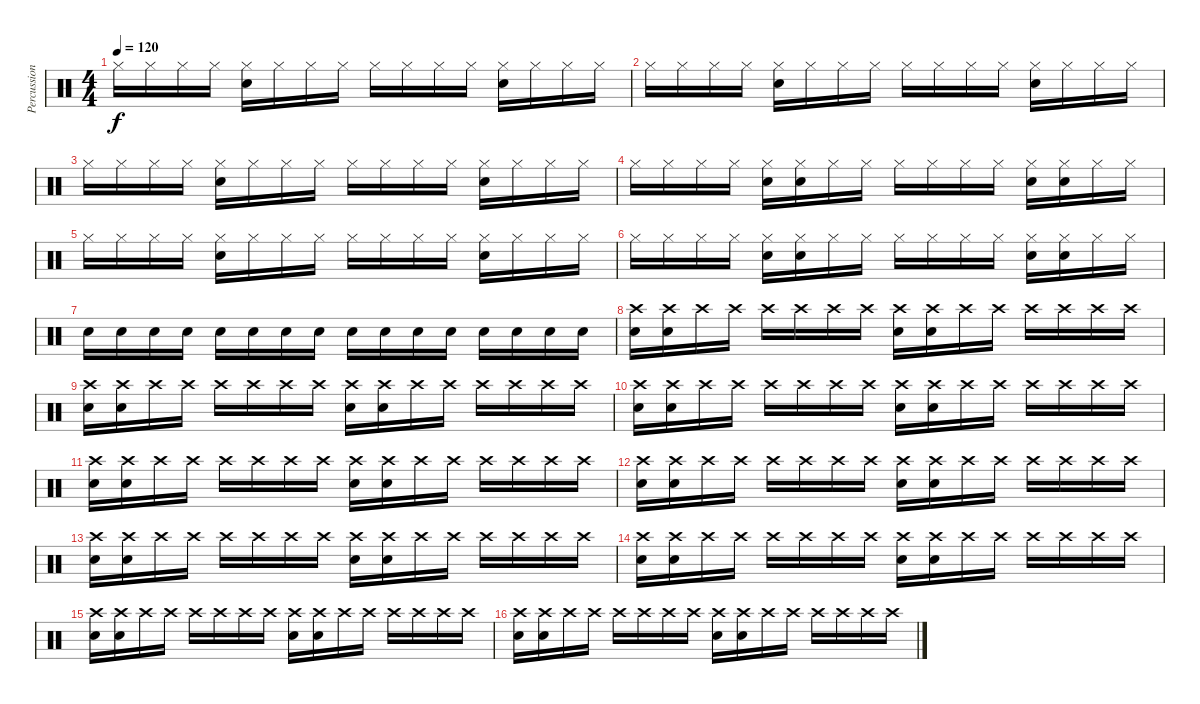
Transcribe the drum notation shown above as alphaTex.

\track ("Percussion" "Percussion") {instrument percussion}
\staff {score}
\articulation defaults
\ts (4 4)
\tempo 120
\clef neutral
\ks c "Hi-Hat (closed)".16{dy f} "Hi-Hat (closed)".16 "Hi-Hat (closed)".16 "Hi-Hat (closed)".16
("Hi-Hat (closed)" "Electric Snare (hit)").16 "Hi-Hat (closed)".16 "Hi-Hat (closed)".16 "Hi-Hat (closed)".16 "Hi-Hat (closed)".16 "Hi-Hat (closed)".16 "Hi-Hat (closed)".16 "Hi-Hat (closed)".16 ("Hi-Hat (closed)" "Electric Snare (hit)").16 "Hi-Hat (closed)".16 "Hi-Hat (closed)".16 "Hi-Hat (closed)".16 |
"Hi-Hat (closed)".16 "Hi-Hat (closed)".16 "Hi-Hat (closed)".16 "Hi-Hat (closed)".16 ("Hi-Hat (closed)" "Electric Snare (hit)").16 "Hi-Hat (closed)".16 "Hi-Hat (closed)".16 "Hi-Hat (closed)".16 "Hi-Hat (closed)".16 "Hi-Hat (closed)".16 "Hi-Hat (closed)".16 "Hi-Hat (closed)".16 ("Hi-Hat (closed)" "Electric Snare (hit)").16 "Hi-Hat (closed)".16 "Hi-Hat (closed)".16 "Hi-Hat (closed)".16 |
"Hi-Hat (closed)".16 "Hi-Hat (closed)".16 "Hi-Hat (closed)".16 "Hi-Hat (closed)".16 ("Hi-Hat (closed)" "Electric Snare (hit)").16 "Hi-Hat (closed)".16 "Hi-Hat (closed)".16 "Hi-Hat (closed)".16 "Hi-Hat (closed)".16 "Hi-Hat (closed)".16 "Hi-Hat (closed)".16 "Hi-Hat (closed)".16 ("Hi-Hat (closed)" "Electric Snare (hit)").16 "Hi-Hat (closed)".16 "Hi-Hat (closed)".16 "Hi-Hat (closed)".16 |
"Hi-Hat (closed)".16 "Hi-Hat (closed)".16 "Hi-Hat (closed)".16 "Hi-Hat (closed)".16 ("Hi-Hat (closed)" "Electric Snare (hit)").16 ("Hi-Hat (closed)" "Electric Snare (hit)").16 "Hi-Hat (closed)".16 "Hi-Hat (closed)".16 "Hi-Hat (closed)".16 "Hi-Hat (closed)".16 "Hi-Hat (closed)".16 "Hi-Hat (closed)".16 ("Hi-Hat (closed)" "Electric Snare (hit)").16 ("Hi-Hat (closed)" "Electric Snare (hit)").16 "Hi-Hat (closed)".16 "Hi-Hat (closed)".16 |
"Hi-Hat (closed)".16 "Hi-Hat (closed)".16 "Hi-Hat (closed)".16 "Hi-Hat (closed)".16 ("Hi-Hat (closed)" "Electric Snare (hit)").16 "Hi-Hat (closed)".16 "Hi-Hat (closed)".16 "Hi-Hat (closed)".16 "Hi-Hat (closed)".16 "Hi-Hat (closed)".16 "Hi-Hat (closed)".16 "Hi-Hat (closed)".16 ("Hi-Hat (closed)" "Electric Snare (hit)").16 "Hi-Hat (closed)".16 "Hi-Hat (closed)".16 "Hi-Hat (closed)".16 |
"Hi-Hat (closed)".16 "Hi-Hat (closed)".16 "Hi-Hat (closed)".16 "Hi-Hat (closed)".16 ("Hi-Hat (closed)" "Electric Snare (hit)").16 ("Hi-Hat (closed)" "Electric Snare (hit)").16 "Hi-Hat (closed)".16 "Hi-Hat (closed)".16 "Hi-Hat (closed)".16 "Hi-Hat (closed)".16 "Hi-Hat (closed)".16 "Hi-Hat (closed)".16 ("Hi-Hat (closed)" "Electric Snare (hit)").16 ("Hi-Hat (closed)" "Electric Snare (hit)").16 "Hi-Hat (closed)".16 "Hi-Hat (closed)".16 |
"Electric Snare (hit)".16 "Electric Snare (hit)".16 "Electric Snare (hit)".16 "Electric Snare (hit)".16 "Electric Snare (hit)".16 "Electric Snare (hit)".16 "Electric Snare (hit)".16 "Electric Snare (hit)".16 "Electric Snare (hit)".16 "Electric Snare (hit)".16 "Electric Snare (hit)".16 "Electric Snare (hit)".16 "Electric Snare (hit)".16 "Electric Snare (hit)".16 "Electric Snare (hit)".16 "Electric Snare (hit)".16 |
("Crash high (hit)" "Electric Snare (hit)").16 ("Crash high (hit)" "Electric Snare (hit)").16 "Crash high (hit)".16 "Crash high (hit)".16 "Crash high (hit)".16 "Crash high (hit)".16 "Crash high (hit)".16 "Crash high (hit)".16 ("Crash high (hit)" "Electric Snare (hit)").16 ("Crash high (hit)" "Electric Snare (hit)").16 "Crash high (hit)".16 "Crash high (hit)".16 "Crash high (hit)".16 "Crash high (hit)".16 "Crash high (hit)".16 "Crash high (hit)".16 |
("Crash high (hit)" "Electric Snare (hit)").16 ("Crash high (hit)" "Electric Snare (hit)").16 "Crash high (hit)".16 "Crash high (hit)".16 "Crash high (hit)".16 "Crash high (hit)".16 "Crash high (hit)".16 "Crash high (hit)".16 ("Crash high (hit)" "Electric Snare (hit)").16 ("Crash high (hit)" "Electric Snare (hit)").16 "Crash high (hit)".16 "Crash high (hit)".16 "Crash high (hit)".16 "Crash high (hit)".16 "Crash high (hit)".16 "Crash high (hit)".16 |
("Crash high (hit)" "Electric Snare (hit)").16 ("Crash high (hit)" "Electric Snare (hit)").16 "Crash high (hit)".16 "Crash high (hit)".16 "Crash high (hit)".16 "Crash high (hit)".16 "Crash high (hit)".16 "Crash high (hit)".16 ("Crash high (hit)" "Electric Snare (hit)").16 ("Crash high (hit)" "Electric Snare (hit)").16 "Crash high (hit)".16 "Crash high (hit)".16 "Crash high (hit)".16 "Crash high (hit)".16 "Crash high (hit)".16 "Crash high (hit)".16 |
("Crash high (hit)" "Electric Snare (hit)").16 ("Crash high (hit)" "Electric Snare (hit)").16 "Crash high (hit)".16 "Crash high (hit)".16 "Crash high (hit)".16 "Crash high (hit)".16 "Crash high (hit)".16 "Crash high (hit)".16 ("Crash high (hit)" "Electric Snare (hit)").16 ("Crash high (hit)" "Electric Snare (hit)").16 "Crash high (hit)".16 "Crash high (hit)".16 "Crash high (hit)".16 "Crash high (hit)".16 "Crash high (hit)".16 "Crash high (hit)".16 |
("Crash high (hit)" "Electric Snare (hit)").16 ("Crash high (hit)" "Electric Snare (hit)").16 "Crash high (hit)".16 "Crash high (hit)".16 "Crash high (hit)".16 "Crash high (hit)".16 "Crash high (hit)".16 "Crash high (hit)".16 ("Crash high (hit)" "Electric Snare (hit)").16 ("Crash high (hit)" "Electric Snare (hit)").16 "Crash high (hit)".16 "Crash high (hit)".16 "Crash high (hit)".16 "Crash high (hit)".16 "Crash high (hit)".16 "Crash high (hit)".16 |
("Crash high (hit)" "Electric Snare (hit)").16 ("Crash high (hit)" "Electric Snare (hit)").16 "Crash high (hit)".16 "Crash high (hit)".16 "Crash high (hit)".16 "Crash high (hit)".16 "Crash high (hit)".16 "Crash high (hit)".16 ("Crash high (hit)" "Electric Snare (hit)").16 ("Crash high (hit)" "Electric Snare (hit)").16 "Crash high (hit)".16 "Crash high (hit)".16 "Crash high (hit)".16 "Crash high (hit)".16 "Crash high (hit)".16 "Crash high (hit)".16 |
("Crash high (hit)" "Electric Snare (hit)").16 ("Crash high (hit)" "Electric Snare (hit)").16 "Crash high (hit)".16 "Crash high (hit)".16 "Crash high (hit)".16 "Crash high (hit)".16 "Crash high (hit)".16 "Crash high (hit)".16 ("Crash high (hit)" "Electric Snare (hit)").16 ("Crash high (hit)" "Electric Snare (hit)").16 "Crash high (hit)".16 "Crash high (hit)".16 "Crash high (hit)".16 "Crash high (hit)".16 "Crash high (hit)".16 "Crash high (hit)".16 |
("Crash high (hit)" "Electric Snare (hit)").16 ("Crash high (hit)" "Electric Snare (hit)").16 "Crash high (hit)".16 "Crash high (hit)".16 "Crash high (hit)".16 "Crash high (hit)".16 "Crash high (hit)".16 "Crash high (hit)".16 ("Crash high (hit)" "Electric Snare (hit)").16 ("Crash high (hit)" "Electric Snare (hit)").16 "Crash high (hit)".16 "Crash high (hit)".16 "Crash high (hit)".16 "Crash high (hit)".16 "Crash high (hit)".16 "Crash high (hit)".16 |
("Crash high (hit)" "Electric Snare (hit)").16 ("Crash high (hit)" "Electric Snare (hit)").16 "Crash high (hit)".16 "Crash high (hit)".16 "Crash high (hit)".16 "Crash high (hit)".16 "Crash high (hit)".16 "Crash high (hit)".16 ("Crash high (hit)" "Electric Snare (hit)").16 ("Crash high (hit)" "Electric Snare (hit)").16 "Crash high (hit)".16 "Crash high (hit)".16 "Crash high (hit)".16 "Crash high (hit)".16 "Crash high (hit)".16 "Crash high (hit)".16
